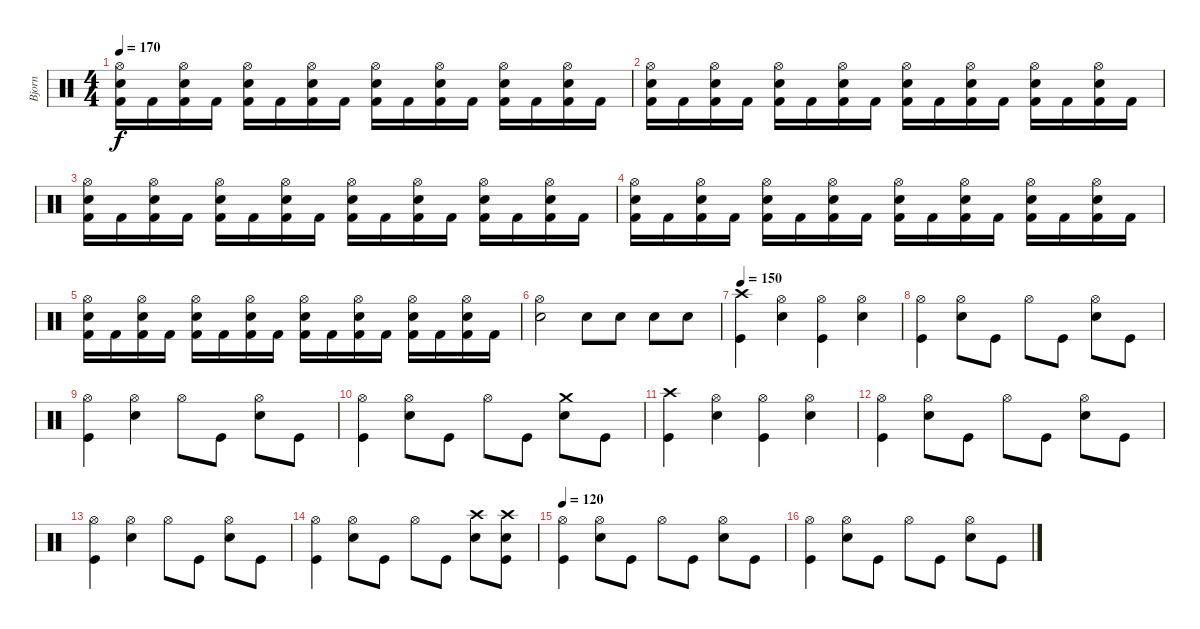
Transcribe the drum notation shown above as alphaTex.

\track ("Bjorn " "Bjorn ") {instrument percussion}
\staff {score}
\articulation defaults
\ts (4 4)
\tempo 170
\clef neutral
\ks c
("Hi-Hat (open)" "Electric Snare (hit)" "Kick (hit) 2").16{dy f} "Kick (hit) 2".16 ("Hi-Hat (open)" "Electric Snare (hit)" "Kick (hit) 2").16 "Kick (hit) 2".16 ("Hi-Hat (open)" "Electric Snare (hit)" "Kick (hit) 2").16 "Kick (hit) 2".16 ("Hi-Hat (open)" "Electric Snare (hit)" "Kick (hit) 2").16 "Kick (hit) 2".16 ("Hi-Hat (open)" "Electric Snare (hit)" "Kick (hit) 2").16 "Kick (hit) 2".16 ("Hi-Hat (open)" "Electric Snare (hit)" "Kick (hit) 2").16 "Kick (hit) 2".16 ("Hi-Hat (open)" "Electric Snare (hit)" "Kick (hit) 2").16 "Kick (hit) 2".16 ("Hi-Hat (open)" "Electric Snare (hit)" "Kick (hit) 2").16 "Kick (hit) 2".16 |
("Hi-Hat (open)" "Electric Snare (hit)" "Kick (hit) 2").16 "Kick (hit) 2".16 ("Hi-Hat (open)" "Electric Snare (hit)" "Kick (hit) 2").16 "Kick (hit) 2".16 ("Hi-Hat (open)" "Electric Snare (hit)" "Kick (hit) 2").16 "Kick (hit) 2".16 ("Hi-Hat (open)" "Electric Snare (hit)" "Kick (hit) 2").16 "Kick (hit) 2".16 ("Hi-Hat (open)" "Electric Snare (hit)" "Kick (hit) 2").16 "Kick (hit) 2".16 ("Hi-Hat (open)" "Electric Snare (hit)" "Kick (hit) 2").16 "Kick (hit) 2".16 ("Hi-Hat (open)" "Electric Snare (hit)" "Kick (hit) 2").16 "Kick (hit) 2".16 ("Hi-Hat (open)" "Electric Snare (hit)" "Kick (hit) 2").16 "Kick (hit) 2".16 |
("Hi-Hat (open)" "Electric Snare (hit)" "Kick (hit) 2").16 "Kick (hit) 2".16 ("Hi-Hat (open)" "Electric Snare (hit)" "Kick (hit) 2").16 "Kick (hit) 2".16 ("Hi-Hat (open)" "Electric Snare (hit)" "Kick (hit) 2").16 "Kick (hit) 2".16 ("Hi-Hat (open)" "Electric Snare (hit)" "Kick (hit) 2").16 "Kick (hit) 2".16 ("Hi-Hat (open)" "Electric Snare (hit)" "Kick (hit) 2").16 "Kick (hit) 2".16 ("Hi-Hat (open)" "Electric Snare (hit)" "Kick (hit) 2").16 "Kick (hit) 2".16 ("Hi-Hat (open)" "Electric Snare (hit)" "Kick (hit) 2").16 "Kick (hit) 2".16 ("Hi-Hat (open)" "Electric Snare (hit)" "Kick (hit) 2").16 "Kick (hit) 2".16 |
("Hi-Hat (open)" "Electric Snare (hit)" "Kick (hit) 2").16 "Kick (hit) 2".16 ("Hi-Hat (open)" "Electric Snare (hit)" "Kick (hit) 2").16 "Kick (hit) 2".16 ("Hi-Hat (open)" "Electric Snare (hit)" "Kick (hit) 2").16 "Kick (hit) 2".16 ("Hi-Hat (open)" "Electric Snare (hit)" "Kick (hit) 2").16 "Kick (hit) 2".16 ("Hi-Hat (open)" "Electric Snare (hit)" "Kick (hit) 2").16 "Kick (hit) 2".16 ("Hi-Hat (open)" "Electric Snare (hit)" "Kick (hit) 2").16 "Kick (hit) 2".16 ("Hi-Hat (open)" "Electric Snare (hit)" "Kick (hit) 2").16 "Kick (hit) 2".16 ("Hi-Hat (open)" "Electric Snare (hit)" "Kick (hit) 2").16 "Kick (hit) 2".16 |
("Hi-Hat (open)" "Electric Snare (hit)" "Kick (hit) 2").16 "Kick (hit) 2".16 ("Hi-Hat (open)" "Electric Snare (hit)" "Kick (hit) 2").16 "Kick (hit) 2".16 ("Hi-Hat (open)" "Electric Snare (hit)" "Kick (hit) 2").16 "Kick (hit) 2".16 ("Hi-Hat (open)" "Electric Snare (hit)" "Kick (hit) 2").16 "Kick (hit) 2".16 ("Hi-Hat (open)" "Electric Snare (hit)" "Kick (hit) 2").16 "Kick (hit) 2".16 ("Hi-Hat (open)" "Electric Snare (hit)" "Kick (hit) 2").16 "Kick (hit) 2".16 ("Hi-Hat (open)" "Electric Snare (hit)" "Kick (hit) 2").16 "Kick (hit) 2".16 ("Hi-Hat (open)" "Electric Snare (hit)" "Kick (hit) 2").16 "Kick (hit) 2".16 |
("Hi-Hat (open)" "Electric Snare (hit)").2 "Electric Snare (hit)".8 "Electric Snare (hit)".8 "Electric Snare (hit)".8 "Electric Snare (hit)".8 |
\tempo 150
("Crash high (hit)" "Kick (hit)").4 ("Hi-Hat (open)" "Electric Snare (hit)").4 ("Hi-Hat (open)" "Kick (hit)").4 ("Hi-Hat (open)" "Electric Snare (hit)").4 |
("Hi-Hat (open)" "Kick (hit)").4 ("Hi-Hat (open)" "Electric Snare (hit)").8 "Kick (hit)".8 "Hi-Hat (open)".8 "Kick (hit)".8 ("Hi-Hat (open)" "Electric Snare (hit)").8 "Kick (hit)".8 |
("Hi-Hat (open)" "Kick (hit)").4 ("Hi-Hat (open)" "Electric Snare (hit)").4 "Hi-Hat (open)".8 "Kick (hit)".8 ("Hi-Hat (open)" "Electric Snare (hit)").8 "Kick (hit)".8 |
("Hi-Hat (open)" "Kick (hit)").4 ("Hi-Hat (open)" "Electric Snare (hit)").8 "Kick (hit)".8 "Hi-Hat (open)".8 "Kick (hit)".8 ("Crash medium (hit)" "Electric Snare (hit)").8 "Kick (hit)".8 |
("Crash high (hit)" "Kick (hit)").4 ("Hi-Hat (open)" "Electric Snare (hit)").4 ("Hi-Hat (open)" "Kick (hit)").4 ("Hi-Hat (open)" "Electric Snare (hit)").4 |
("Hi-Hat (open)" "Kick (hit)").4 ("Hi-Hat (open)" "Electric Snare (hit)").8 "Kick (hit)".8 "Hi-Hat (open)".8 "Kick (hit)".8 ("Hi-Hat (open)" "Electric Snare (hit)").8 "Kick (hit)".8 |
("Hi-Hat (open)" "Kick (hit)").4 ("Hi-Hat (open)" "Electric Snare (hit)").4 "Hi-Hat (open)".8 "Kick (hit)".8 ("Hi-Hat (open)" "Electric Snare (hit)").8 "Kick (hit)".8 |
("Hi-Hat (open)" "Kick (hit)").4 ("Hi-Hat (open)" "Electric Snare (hit)").8 "Kick (hit)".8 "Hi-Hat (open)".8 "Kick (hit)".8 ("Crash high (hit)" "Electric Snare (hit)").8 ("Crash high (hit)" "Electric Snare (hit)" "Kick (hit)").8 |
\tempo 120
("Hi-Hat (open)" "Kick (hit)").4 ("Hi-Hat (open)" "Electric Snare (hit)").8 "Kick (hit)".8 "Hi-Hat (open)".8 "Kick (hit)".8 ("Hi-Hat (open)" "Electric Snare (hit)").8 "Kick (hit)".8 |
("Hi-Hat (open)" "Kick (hit)").4 ("Hi-Hat (open)" "Electric Snare (hit)").8 "Kick (hit)".8 "Hi-Hat (open)".8 "Kick (hit)".8 ("Hi-Hat (open)" "Electric Snare (hit)").8 "Kick (hit)".8
